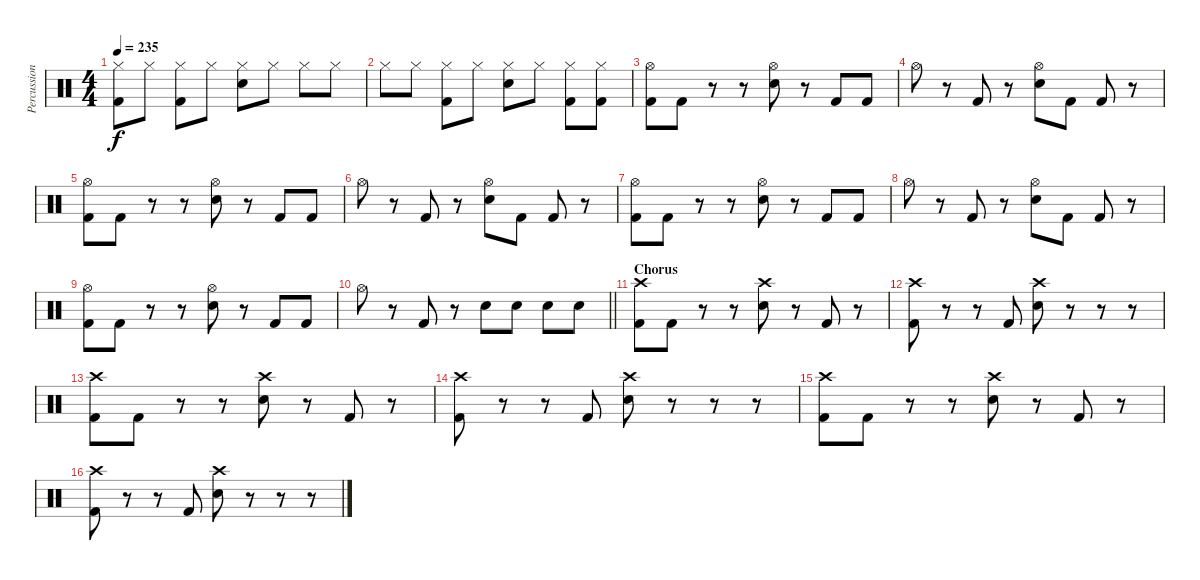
\track ("Percussion" "Percussion") {instrument percussion}
\staff {score}
\articulation defaults
\ts (4 4)
\tempo 235
\clef neutral
\ks c
("Hi-Hat (closed)" "Kick (hit) 2").8{dy f} "Hi-Hat (closed)".8 ("Hi-Hat (closed)" "Kick (hit) 2").8 "Hi-Hat (closed)".8 ("Hi-Hat (closed)" "Snare (hit) 2").8 "Hi-Hat (closed)".8 "Hi-Hat (closed)".8 "Hi-Hat (closed)".8 |
"Hi-Hat (closed)".8 "Hi-Hat (closed)".8 ("Hi-Hat (closed)" "Kick (hit) 2").8 "Hi-Hat (closed)".8 ("Hi-Hat (closed)" "Snare (hit) 2").8 "Hi-Hat (closed)".8 ("Hi-Hat (closed)" "Kick (hit) 2").8 ("Hi-Hat (closed)" "Kick (hit) 2").8 |
("Hi-Hat (open)" "Kick (hit) 2").8 "Kick (hit) 2".8 r.8 r.8 ("Hi-Hat (open)" "Snare (hit) 2").8 r.8 "Kick (hit) 2".8 "Kick (hit) 2".8 |
"Hi-Hat (open)".8 r.8 "Kick (hit) 2".8 r.8 ("Hi-Hat (open)" "Snare (hit) 2").8 "Kick (hit) 2".8 "Kick (hit) 2".8 r.8 |
("Hi-Hat (open)" "Kick (hit) 2").8 "Kick (hit) 2".8 r.8 r.8 ("Hi-Hat (open)" "Snare (hit) 2").8 r.8 "Kick (hit) 2".8 "Kick (hit) 2".8 |
"Hi-Hat (open)".8 r.8 "Kick (hit) 2".8 r.8 ("Hi-Hat (open)" "Snare (hit) 2").8 "Kick (hit) 2".8 "Kick (hit) 2".8 r.8 |
("Hi-Hat (open)" "Kick (hit) 2").8 "Kick (hit) 2".8 r.8 r.8 ("Hi-Hat (open)" "Snare (hit) 2").8 r.8 "Kick (hit) 2".8 "Kick (hit) 2".8 |
"Hi-Hat (open)".8 r.8 "Kick (hit) 2".8 r.8 ("Hi-Hat (open)" "Snare (hit) 2").8 "Kick (hit) 2".8 "Kick (hit) 2".8 r.8 |
("Hi-Hat (open)" "Kick (hit) 2").8 "Kick (hit) 2".8 r.8 r.8 ("Hi-Hat (open)" "Snare (hit) 2").8 r.8 "Kick (hit) 2".8 "Kick (hit) 2".8 |
\barLineRight lightlight "Hi-Hat (open)".8
r.8 "Kick (hit) 2".8 r.8 "Snare (hit) 2".8 "Snare (hit) 2".8 "Snare (hit) 2".8 "Snare (hit) 2".8 |
\section ("" "Chorus")
("Crash high (hit)" "Kick (hit) 2").8 "Kick (hit) 2".8 r.8 r.8 ("Crash high (hit)" "Snare (hit) 2").8 r.8 "Kick (hit) 2".8 r.8 |
("Crash high (hit)" "Kick (hit) 2").8 r.8 r.8 "Kick (hit) 2".8 ("Crash high (hit)" "Snare (hit) 2").8 r.8 r.8 r.8 |
("Crash high (hit)" "Kick (hit) 2").8 "Kick (hit) 2".8 r.8 r.8 ("Crash high (hit)" "Snare (hit) 2").8 r.8 "Kick (hit) 2".8 r.8 |
("Crash high (hit)" "Kick (hit) 2").8 r.8 r.8 "Kick (hit) 2".8 ("Crash high (hit)" "Snare (hit) 2").8 r.8 r.8 r.8 |
("Crash high (hit)" "Kick (hit) 2").8 "Kick (hit) 2".8 r.8 r.8 ("Crash high (hit)" "Snare (hit) 2").8 r.8 "Kick (hit) 2".8 r.8 |
("Crash high (hit)" "Kick (hit) 2").8 r.8 r.8 "Kick (hit) 2".8 ("Crash high (hit)" "Snare (hit) 2").8 r.8 r.8 r.8
